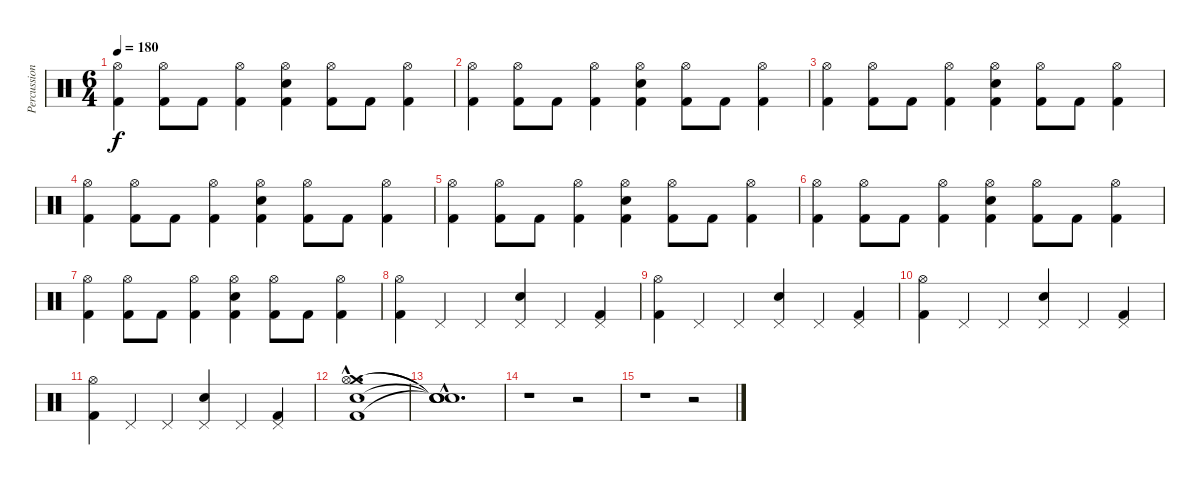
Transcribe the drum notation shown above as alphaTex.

\track ("Percussion" "Percussion") {instrument percussion}
\staff {score}
\articulation defaults
\ts (6 4)
\tempo 180
\clef neutral
\ks c
("Hi-Hat (open)" "Kick (hit) 2").4{dy f} ("Hi-Hat (open)" "Kick (hit) 2").8 "Kick (hit) 2".8 ("Hi-Hat (open)" "Kick (hit) 2").4 ("Hi-Hat (open)" "Electric Snare (hit)" "Kick (hit) 2").4 ("Hi-Hat (open)" "Kick (hit) 2").8 "Kick (hit) 2".8 ("Hi-Hat (open)" "Kick (hit) 2").4 |
("Hi-Hat (open)" "Kick (hit) 2").4 ("Hi-Hat (open)" "Kick (hit) 2").8 "Kick (hit) 2".8 ("Hi-Hat (open)" "Kick (hit) 2").4 ("Hi-Hat (open)" "Electric Snare (hit)" "Kick (hit) 2").4 ("Hi-Hat (open)" "Kick (hit) 2").8 "Kick (hit) 2".8 ("Hi-Hat (open)" "Kick (hit) 2").4 |
("Hi-Hat (open)" "Kick (hit) 2").4 ("Hi-Hat (open)" "Kick (hit) 2").8 "Kick (hit) 2".8 ("Hi-Hat (open)" "Kick (hit) 2").4 ("Hi-Hat (open)" "Electric Snare (hit)" "Kick (hit) 2").4 ("Hi-Hat (open)" "Kick (hit) 2").8 "Kick (hit) 2".8 ("Hi-Hat (open)" "Kick (hit) 2").4 |
("Hi-Hat (open)" "Kick (hit) 2").4 ("Hi-Hat (open)" "Kick (hit) 2").8 "Kick (hit) 2".8 ("Hi-Hat (open)" "Kick (hit) 2").4 ("Hi-Hat (open)" "Electric Snare (hit)" "Kick (hit) 2").4 ("Hi-Hat (open)" "Kick (hit) 2").8 "Kick (hit) 2".8 ("Hi-Hat (open)" "Kick (hit) 2").4 |
("Hi-Hat (open)" "Kick (hit) 2").4 ("Hi-Hat (open)" "Kick (hit) 2").8 "Kick (hit) 2".8 ("Hi-Hat (open)" "Kick (hit) 2").4 ("Hi-Hat (open)" "Electric Snare (hit)" "Kick (hit) 2").4 ("Hi-Hat (open)" "Kick (hit) 2").8 "Kick (hit) 2".8 ("Hi-Hat (open)" "Kick (hit) 2").4 |
("Hi-Hat (open)" "Kick (hit) 2").4 ("Hi-Hat (open)" "Kick (hit) 2").8 "Kick (hit) 2".8 ("Hi-Hat (open)" "Kick (hit) 2").4 ("Hi-Hat (open)" "Electric Snare (hit)" "Kick (hit) 2").4 ("Hi-Hat (open)" "Kick (hit) 2").8 "Kick (hit) 2".8 ("Hi-Hat (open)" "Kick (hit) 2").4 |
("Hi-Hat (open)" "Kick (hit) 2").4 ("Hi-Hat (open)" "Kick (hit) 2").8 "Kick (hit) 2".8 ("Hi-Hat (open)" "Kick (hit) 2").4 ("Hi-Hat (open)" "Electric Snare (hit)" "Kick (hit) 2").4 ("Hi-Hat (open)" "Kick (hit) 2").8 "Kick (hit) 2".8 ("Hi-Hat (open)" "Kick (hit) 2").4 |
("Hi-Hat (open)" "Kick (hit) 2").4 "Pedal Hi-Hat (hit)".4 "Pedal Hi-Hat (hit)".4 ("Pedal Hi-Hat (hit)" "Electric Snare (hit)").4 "Pedal Hi-Hat (hit)".4 ("Pedal Hi-Hat (hit)" "Kick (hit) 2").4 |
("Hi-Hat (open)" "Kick (hit) 2").4 "Pedal Hi-Hat (hit)".4 "Pedal Hi-Hat (hit)".4 ("Pedal Hi-Hat (hit)" "Electric Snare (hit)").4 "Pedal Hi-Hat (hit)".4 ("Pedal Hi-Hat (hit)" "Kick (hit) 2").4 |
("Hi-Hat (open)" "Kick (hit) 2").4 "Pedal Hi-Hat (hit)".4 "Pedal Hi-Hat (hit)".4 ("Pedal Hi-Hat (hit)" "Electric Snare (hit)").4 "Pedal Hi-Hat (hit)".4 ("Pedal Hi-Hat (hit)" "Kick (hit) 2").4 |
("Hi-Hat (open)" "Kick (hit) 2").4 "Pedal Hi-Hat (hit)".4 "Pedal Hi-Hat (hit)".4 ("Pedal Hi-Hat (hit)" "Electric Snare (hit)").4 "Pedal Hi-Hat (hit)".4 ("Pedal Hi-Hat (hit)" "Kick (hit) 2").4 |
("Crash medium (hit)"{hac} "Hi-Hat (open)"{hac} "Electric Snare (hit)"{hac} "Kick (hit) 2"{hac}).1{d} |
("Snare (hit)"{hac t} "Snare (hit)"{hac t} "Snare (hit)"{hac t} "Snare (hit)"{hac t}).1{d} |
r.1 r.2 |
r.1 r.2
